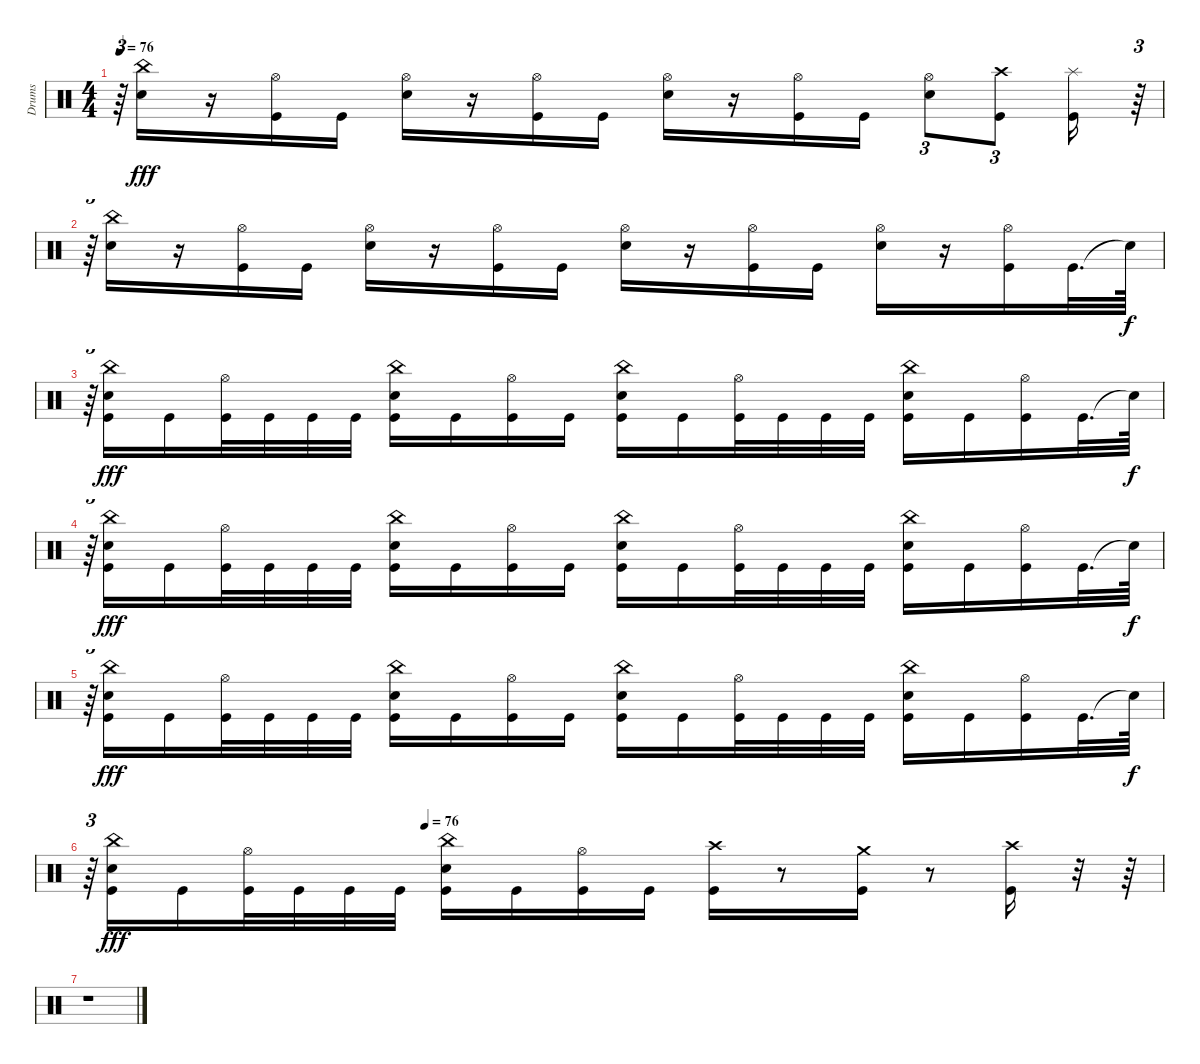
\track ("Drums" "Drums") {instrument percussion}
\staff {score}
\articulation defaults
\ts (4 4)
\tempo 76
\clef neutral
\ks c
r.64{tu (3 2) dy f} ("Electric Snare (hit)" "China (hit)").16{dy fff} r.16 ("Hi-Hat (open)" "Kick (hit)").16 "Kick (hit)".16 ("Hi-Hat (open)" "Electric Snare (hit)").16 r.16 ("Hi-Hat (open)" "Kick (hit)").16 "Kick (hit)".16 ("Hi-Hat (open)" "Electric Snare (hit)").16 r.16 ("Hi-Hat (open)" "Kick (hit)").16 "Kick (hit)".16 ("Hi-Hat (open)" "Electric Snare (hit)").8{tu (3 2)} ("Kick (hit)" "Crash high (hit)").8{tu (3 2)} ("Kick (hit)" "Splash (hit)").16 r.64{tu (3 2)} |
r.64{tu (3 2)} ("China (hit)" "Electric Snare (hit)").16 r.16 ("Hi-Hat (open)" "Kick (hit)").16 "Kick (hit)".16 ("Hi-Hat (open)" "Electric Snare (hit)").16 r.16 ("Hi-Hat (open)" "Kick (hit)").16 "Kick (hit)".16 ("Hi-Hat (open)" "Electric Snare (hit)").16 r.16 ("Hi-Hat (open)" "Kick (hit)").16 "Kick (hit)".16 ("Hi-Hat (open)" "Electric Snare (hit)").16 r.16 ("Hi-Hat (open)" "Kick (hit)").16 "Kick (hit)".32{d} "Snare (hit)"{t}.64{dy f} |
r.64{tu (3 2)} ("China (hit)" "Kick (hit)" "Electric Snare (hit)").16{dy fff} "Kick (hit)".16 ("Hi-Hat (open)" "Kick (hit)").32 "Kick (hit)".32 "Kick (hit)".32 "Kick (hit)".32 ("China (hit)" "Electric Snare (hit)" "Kick (hit)").16 "Kick (hit)".16 ("Hi-Hat (open)" "Kick (hit)").16 "Kick (hit)".16 ("China (hit)" "Electric Snare (hit)" "Kick (hit)").16 "Kick (hit)".16 ("Hi-Hat (open)" "Kick (hit)").32 "Kick (hit)".32 "Kick (hit)".32 "Kick (hit)".32 ("China (hit)" "Electric Snare (hit)" "Kick (hit)").16 "Kick (hit)".16 ("Hi-Hat (open)" "Kick (hit)").16 "Kick (hit)".32{d} "Snare (hit)"{t}.64{dy f} |
r.64{tu (3 2)} ("Electric Snare (hit)" "Kick (hit)" "China (hit)").16{dy fff} "Kick (hit)".16 ("Kick (hit)" "Hi-Hat (open)").32 "Kick (hit)".32 "Kick (hit)".32 "Kick (hit)".32 ("Kick (hit)" "Electric Snare (hit)" "China (hit)").16 "Kick (hit)".16 ("Kick (hit)" "Hi-Hat (open)").16 "Kick (hit)".16 ("Kick (hit)" "Electric Snare (hit)" "China (hit)").16 "Kick (hit)".16 ("Kick (hit)" "Hi-Hat (open)").32 "Kick (hit)".32 "Kick (hit)".32 "Kick (hit)".32 ("Kick (hit)" "Electric Snare (hit)" "China (hit)").16 "Kick (hit)".16 ("Kick (hit)" "Hi-Hat (open)").16 "Kick (hit)".32{d} "Snare (hit)"{t}.64{dy f} |
r.64{tu (3 2)} ("Electric Snare (hit)" "Kick (hit)" "China (hit)").16{dy fff} "Kick (hit)".16 ("Kick (hit)" "Hi-Hat (open)").32 "Kick (hit)".32 "Kick (hit)".32 "Kick (hit)".32 ("Kick (hit)" "Electric Snare (hit)" "China (hit)").16 "Kick (hit)".16 ("Kick (hit)" "Hi-Hat (open)").16 "Kick (hit)".16 ("Kick (hit)" "Electric Snare (hit)" "China (hit)").16 "Kick (hit)".16 ("Kick (hit)" "Hi-Hat (open)").32 "Kick (hit)".32 "Kick (hit)".32 "Kick (hit)".32 ("Kick (hit)" "Electric Snare (hit)" "China (hit)").16 "Kick (hit)".16 ("Kick (hit)" "Hi-Hat (open)").16 "Kick (hit)".32{d} "Snare (hit)"{t}.64{dy f} |
\tempo (76 0.3125)
r.64{tu (3 2)} ("China (hit)" "Kick (hit)" "Electric Snare (hit)").16{dy fff} "Kick (hit)".16 ("Hi-Hat (open)" "Kick (hit)").32 "Kick (hit)".32 "Kick (hit)".32 "Kick (hit)".32 ("China (hit)" "Electric Snare (hit)" "Kick (hit)").16 "Kick (hit)".16 ("Hi-Hat (open)" "Kick (hit)").16 "Kick (hit)".16 ("Crash high (hit)" "Kick (hit)").16 r.8 ("Crash medium (hit)" "Kick (hit)").16 r.8 ("Crash high (hit)" "Kick (hit)").16 r.32 r.64 |
r.1
